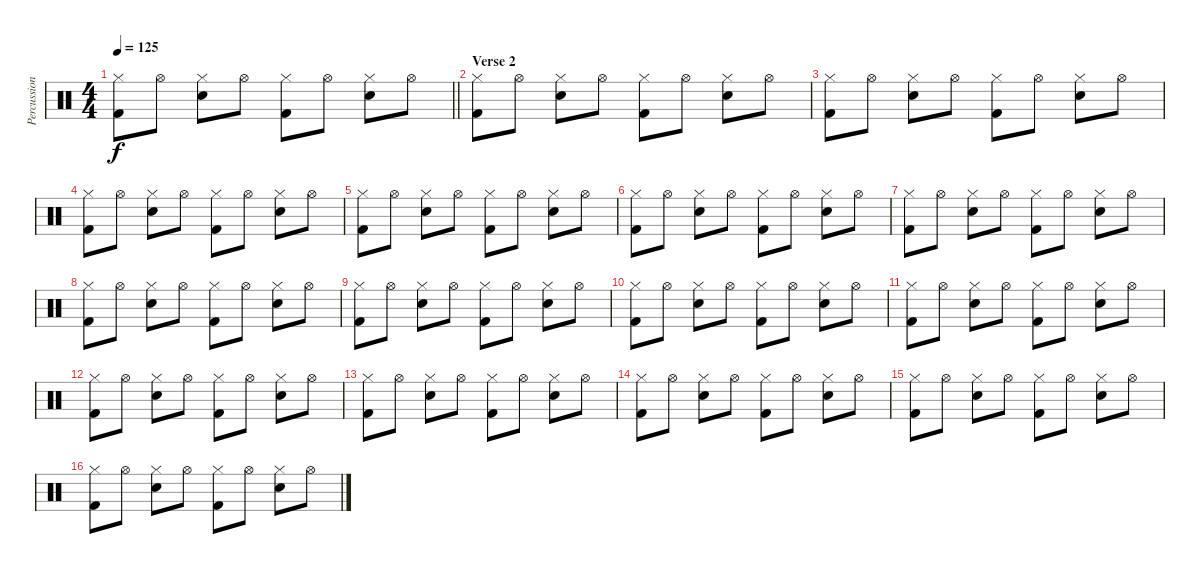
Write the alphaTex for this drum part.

\track ("Percussion" "Percussion") {instrument percussion}
\staff {score}
\articulation defaults
\ts (4 4)
\tempo 125
\clef neutral
\barLineRight lightlight
\ks c
("Hi-Hat (closed)" "Kick (hit) 2").8{dy f} "Hi-Hat (open)".8 ("Hi-Hat (closed)" "Snare (hit) 2").8 "Hi-Hat (open)".8 ("Hi-Hat (closed)" "Kick (hit) 2").8 "Hi-Hat (open)".8 ("Hi-Hat (closed)" "Snare (hit) 2").8 "Hi-Hat (open)".8 |
\section ("" "Verse 2")
("Hi-Hat (closed)" "Kick (hit) 2").8 "Hi-Hat (open)".8 ("Hi-Hat (closed)" "Snare (hit) 2").8 "Hi-Hat (open)".8 ("Hi-Hat (closed)" "Kick (hit) 2").8 "Hi-Hat (open)".8 ("Hi-Hat (closed)" "Snare (hit) 2").8 "Hi-Hat (open)".8 |
("Hi-Hat (closed)" "Kick (hit) 2").8 "Hi-Hat (open)".8 ("Hi-Hat (closed)" "Snare (hit) 2").8 "Hi-Hat (open)".8 ("Hi-Hat (closed)" "Kick (hit) 2").8 "Hi-Hat (open)".8 ("Hi-Hat (closed)" "Snare (hit) 2").8 "Hi-Hat (open)".8 |
("Hi-Hat (closed)" "Kick (hit) 2").8 "Hi-Hat (open)".8 ("Hi-Hat (closed)" "Snare (hit) 2").8 "Hi-Hat (open)".8 ("Hi-Hat (closed)" "Kick (hit) 2").8 "Hi-Hat (open)".8 ("Hi-Hat (closed)" "Snare (hit) 2").8 "Hi-Hat (open)".8 |
("Hi-Hat (closed)" "Kick (hit) 2").8 "Hi-Hat (open)".8 ("Hi-Hat (closed)" "Snare (hit) 2").8 "Hi-Hat (open)".8 ("Hi-Hat (closed)" "Kick (hit) 2").8 "Hi-Hat (open)".8 ("Hi-Hat (closed)" "Snare (hit) 2").8 "Hi-Hat (open)".8 |
("Hi-Hat (closed)" "Kick (hit) 2").8 "Hi-Hat (open)".8 ("Hi-Hat (closed)" "Snare (hit) 2").8 "Hi-Hat (open)".8 ("Hi-Hat (closed)" "Kick (hit) 2").8 "Hi-Hat (open)".8 ("Hi-Hat (closed)" "Snare (hit) 2").8 "Hi-Hat (open)".8 |
("Hi-Hat (closed)" "Kick (hit) 2").8 "Hi-Hat (open)".8 ("Hi-Hat (closed)" "Snare (hit) 2").8 "Hi-Hat (open)".8 ("Hi-Hat (closed)" "Kick (hit) 2").8 "Hi-Hat (open)".8 ("Hi-Hat (closed)" "Snare (hit) 2").8 "Hi-Hat (open)".8 |
("Hi-Hat (closed)" "Kick (hit) 2").8 "Hi-Hat (open)".8 ("Hi-Hat (closed)" "Snare (hit) 2").8 "Hi-Hat (open)".8 ("Hi-Hat (closed)" "Kick (hit) 2").8 "Hi-Hat (open)".8 ("Hi-Hat (closed)" "Snare (hit) 2").8 "Hi-Hat (open)".8 |
("Hi-Hat (closed)" "Kick (hit) 2").8 "Hi-Hat (open)".8 ("Hi-Hat (closed)" "Snare (hit) 2").8 "Hi-Hat (open)".8 ("Hi-Hat (closed)" "Kick (hit) 2").8 "Hi-Hat (open)".8 ("Hi-Hat (closed)" "Snare (hit) 2").8 "Hi-Hat (open)".8 |
("Hi-Hat (closed)" "Kick (hit) 2").8 "Hi-Hat (open)".8 ("Hi-Hat (closed)" "Snare (hit) 2").8 "Hi-Hat (open)".8 ("Hi-Hat (closed)" "Kick (hit) 2").8 "Hi-Hat (open)".8 ("Hi-Hat (closed)" "Snare (hit) 2").8 "Hi-Hat (open)".8 |
("Hi-Hat (closed)" "Kick (hit) 2").8 "Hi-Hat (open)".8 ("Hi-Hat (closed)" "Snare (hit) 2").8 "Hi-Hat (open)".8 ("Hi-Hat (closed)" "Kick (hit) 2").8 "Hi-Hat (open)".8 ("Hi-Hat (closed)" "Snare (hit) 2").8 "Hi-Hat (open)".8 |
("Hi-Hat (closed)" "Kick (hit) 2").8 "Hi-Hat (open)".8 ("Hi-Hat (closed)" "Snare (hit) 2").8 "Hi-Hat (open)".8 ("Hi-Hat (closed)" "Kick (hit) 2").8 "Hi-Hat (open)".8 ("Hi-Hat (closed)" "Snare (hit) 2").8 "Hi-Hat (open)".8 |
("Hi-Hat (closed)" "Kick (hit) 2").8 "Hi-Hat (open)".8 ("Hi-Hat (closed)" "Snare (hit) 2").8 "Hi-Hat (open)".8 ("Hi-Hat (closed)" "Kick (hit) 2").8 "Hi-Hat (open)".8 ("Hi-Hat (closed)" "Snare (hit) 2").8 "Hi-Hat (open)".8 |
("Hi-Hat (closed)" "Kick (hit) 2").8 "Hi-Hat (open)".8 ("Hi-Hat (closed)" "Snare (hit) 2").8 "Hi-Hat (open)".8 ("Hi-Hat (closed)" "Kick (hit) 2").8 "Hi-Hat (open)".8 ("Hi-Hat (closed)" "Snare (hit) 2").8 "Hi-Hat (open)".8 |
("Hi-Hat (closed)" "Kick (hit) 2").8 "Hi-Hat (open)".8 ("Hi-Hat (closed)" "Snare (hit) 2").8 "Hi-Hat (open)".8 ("Hi-Hat (closed)" "Kick (hit) 2").8 "Hi-Hat (open)".8 ("Hi-Hat (closed)" "Snare (hit) 2").8 "Hi-Hat (open)".8 |
("Hi-Hat (closed)" "Kick (hit) 2").8 "Hi-Hat (open)".8 ("Hi-Hat (closed)" "Snare (hit) 2").8 "Hi-Hat (open)".8 ("Hi-Hat (closed)" "Kick (hit) 2").8 "Hi-Hat (open)".8 ("Hi-Hat (closed)" "Snare (hit) 2").8 "Hi-Hat (open)".8
